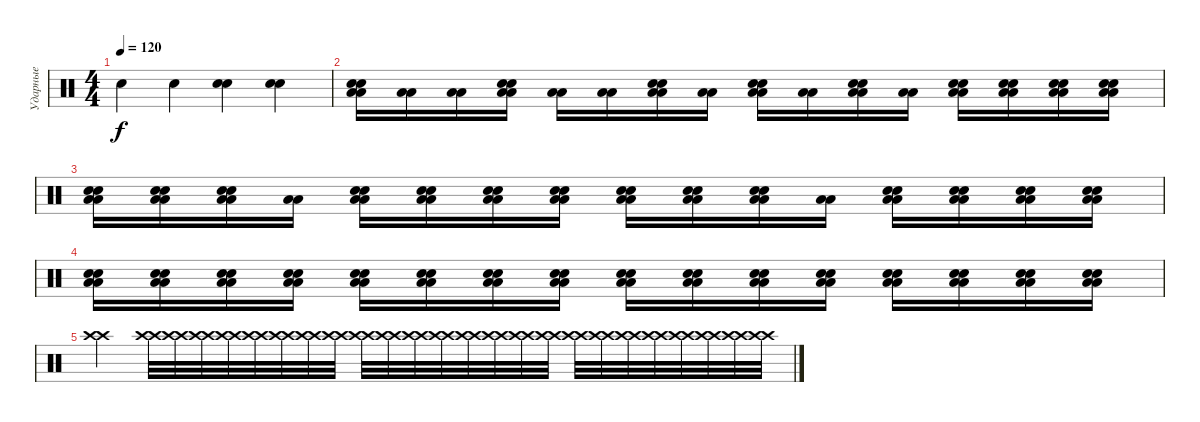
\track ("Ударные" "Ударные") {instrument percussion}
\staff {score}
\articulation defaults
\ts (4 4)
\tempo 120
\clef neutral
\ks c "Electric Snare (hit)".4{dy f} "Electric Snare (hit)".4
("Electric Snare (hit)" "Electric Snare (hit)").4 ("Electric Snare (hit)" "Electric Snare (hit)").4 |
("Electric Snare (hit)" "Electric Snare (hit)" "Low Floor Tom (hit)" "Low Floor Tom (hit)").16 ("Low Floor Tom (hit)" "Low Floor Tom (hit)").16 ("Low Floor Tom (hit)" "Low Floor Tom (hit)").16 ("Electric Snare (hit)" "Electric Snare (hit)" "Low Floor Tom (hit)" "Low Floor Tom (hit)").16 ("Low Floor Tom (hit)" "Low Floor Tom (hit)").16 ("Low Floor Tom (hit)" "Low Floor Tom (hit)").16 ("Electric Snare (hit)" "Electric Snare (hit)" "Low Floor Tom (hit)" "Low Floor Tom (hit)").16 ("Low Floor Tom (hit)" "Low Floor Tom (hit)").16 ("Electric Snare (hit)" "Electric Snare (hit)" "Low Floor Tom (hit)" "Low Floor Tom (hit)").16 ("Low Floor Tom (hit)" "Low Floor Tom (hit)").16 ("Electric Snare (hit)" "Electric Snare (hit)" "Low Floor Tom (hit)" "Low Floor Tom (hit)").16 ("Low Floor Tom (hit)" "Low Floor Tom (hit)").16 ("Electric Snare (hit)" "Electric Snare (hit)" "Low Floor Tom (hit)" "Low Floor Tom (hit)").16 ("Electric Snare (hit)" "Electric Snare (hit)" "Low Floor Tom (hit)" "Low Floor Tom (hit)").16 ("Electric Snare (hit)" "Electric Snare (hit)" "Low Floor Tom (hit)" "Low Floor Tom (hit)").16 ("Electric Snare (hit)" "Electric Snare (hit)" "Low Floor Tom (hit)" "Low Floor Tom (hit)").16 |
("Electric Snare (hit)" "Electric Snare (hit)" "Low Floor Tom (hit)" "Low Floor Tom (hit)").16 ("Electric Snare (hit)" "Electric Snare (hit)" "Low Floor Tom (hit)" "Low Floor Tom (hit)").16 ("Electric Snare (hit)" "Electric Snare (hit)" "Low Floor Tom (hit)" "Low Floor Tom (hit)").16 ("Low Floor Tom (hit)" "Low Floor Tom (hit)").16 ("Electric Snare (hit)" "Electric Snare (hit)" "Low Floor Tom (hit)" "Low Floor Tom (hit)").16 ("Electric Snare (hit)" "Electric Snare (hit)" "Low Floor Tom (hit)" "Low Floor Tom (hit)").16 ("Electric Snare (hit)" "Electric Snare (hit)" "Low Floor Tom (hit)" "Low Floor Tom (hit)").16 ("Electric Snare (hit)" "Electric Snare (hit)" "Low Floor Tom (hit)" "Low Floor Tom (hit)").16 ("Electric Snare (hit)" "Electric Snare (hit)" "Low Floor Tom (hit)" "Low Floor Tom (hit)").16 ("Electric Snare (hit)" "Electric Snare (hit)" "Low Floor Tom (hit)" "Low Floor Tom (hit)").16 ("Electric Snare (hit)" "Electric Snare (hit)" "Low Floor Tom (hit)" "Low Floor Tom (hit)").16 ("Low Floor Tom (hit)" "Low Floor Tom (hit)").16 ("Electric Snare (hit)" "Electric Snare (hit)" "Low Floor Tom (hit)" "Low Floor Tom (hit)").16 ("Electric Snare (hit)" "Electric Snare (hit)" "Low Floor Tom (hit)" "Low Floor Tom (hit)").16 ("Electric Snare (hit)" "Electric Snare (hit)" "Low Floor Tom (hit)" "Low Floor Tom (hit)").16 ("Electric Snare (hit)" "Electric Snare (hit)" "Low Floor Tom (hit)" "Low Floor Tom (hit)").16 |
("Electric Snare (hit)" "Electric Snare (hit)" "Low Floor Tom (hit)" "Low Floor Tom (hit)").16 ("Electric Snare (hit)" "Electric Snare (hit)" "Low Floor Tom (hit)" "Low Floor Tom (hit)").16 ("Electric Snare (hit)" "Electric Snare (hit)" "Low Floor Tom (hit)" "Low Floor Tom (hit)").16 ("Electric Snare (hit)" "Electric Snare (hit)" "Low Floor Tom (hit)" "Low Floor Tom (hit)").16 ("Electric Snare (hit)" "Electric Snare (hit)" "Low Floor Tom (hit)" "Low Floor Tom (hit)").16 ("Electric Snare (hit)" "Electric Snare (hit)" "Low Floor Tom (hit)" "Low Floor Tom (hit)").16 ("Electric Snare (hit)" "Electric Snare (hit)" "Low Floor Tom (hit)" "Low Floor Tom (hit)").16 ("Electric Snare (hit)" "Electric Snare (hit)" "Low Floor Tom (hit)" "Low Floor Tom (hit)").16 ("Electric Snare (hit)" "Electric Snare (hit)" "Low Floor Tom (hit)" "Low Floor Tom (hit)").16 ("Electric Snare (hit)" "Electric Snare (hit)" "Low Floor Tom (hit)" "Low Floor Tom (hit)").16 ("Electric Snare (hit)" "Electric Snare (hit)" "Low Floor Tom (hit)" "Low Floor Tom (hit)").16 ("Electric Snare (hit)" "Electric Snare (hit)" "Low Floor Tom (hit)" "Low Floor Tom (hit)").16 ("Electric Snare (hit)" "Electric Snare (hit)" "Low Floor Tom (hit)" "Low Floor Tom (hit)").16 ("Electric Snare (hit)" "Electric Snare (hit)" "Low Floor Tom (hit)" "Low Floor Tom (hit)").16 ("Electric Snare (hit)" "Electric Snare (hit)" "Low Floor Tom (hit)" "Low Floor Tom (hit)").16 ("Electric Snare (hit)" "Electric Snare (hit)" "Low Floor Tom (hit)" "Low Floor Tom (hit)").16 |
("Crash high (hit)" "Crash high (hit)").4 ("Crash high (hit)" "Crash high (hit)").32 ("Crash high (hit)" "Crash high (hit)").32 ("Crash high (hit)" "Crash high (hit)").32 ("Crash high (hit)" "Crash high (hit)").32 ("Crash high (hit)" "Crash high (hit)").32 ("Crash high (hit)" "Crash high (hit)").32 ("Crash high (hit)" "Crash high (hit)").32 ("Crash high (hit)" "Crash high (hit)").32 ("Crash high (hit)" "Crash high (hit)").32 ("Crash high (hit)" "Crash high (hit)").32 ("Crash high (hit)" "Crash high (hit)").32 ("Crash high (hit)" "Crash high (hit)").32 ("Crash high (hit)" "Crash high (hit)").32 ("Crash high (hit)" "Crash high (hit)").32 ("Crash high (hit)" "Crash high (hit)").32 ("Crash high (hit)" "Crash high (hit)").32 ("Crash high (hit)" "Crash high (hit)").32 ("Crash high (hit)" "Crash high (hit)").32 ("Crash high (hit)" "Crash high (hit)").32 ("Crash high (hit)" "Crash high (hit)").32 ("Crash high (hit)" "Crash high (hit)").32 ("Crash high (hit)" "Crash high (hit)").32 ("Crash high (hit)" "Crash high (hit)").32 ("Crash high (hit)" "Crash high (hit)").32
